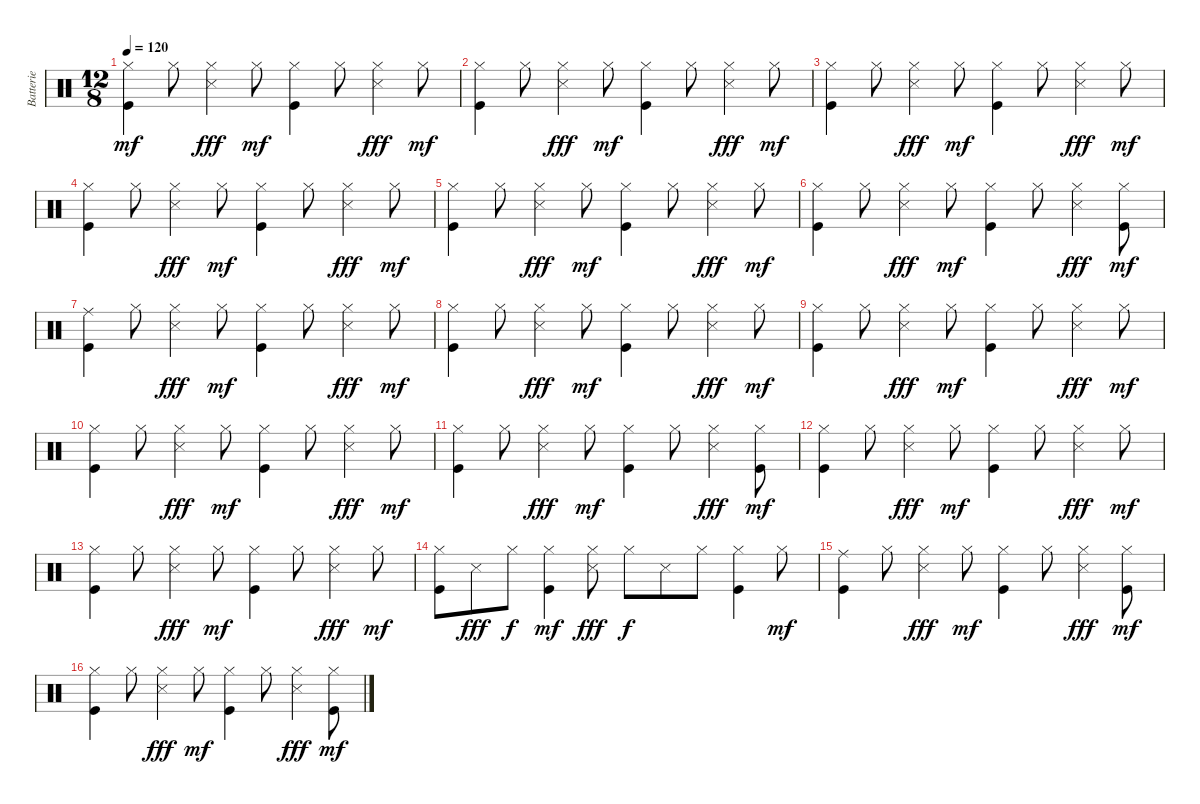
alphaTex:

\track ("Batterie" "Batterie") {instrument percussion}
\staff {score}
\articulation defaults
\ts (12 8)
\tempo 120
\clef neutral
\ks c
("Hi-Hat (closed)" "Kick (hit)").4{dy mf} "Hi-Hat (closed)".8 ("Hi-Hat (closed)" "Snare (side stick) 3").4{dy fff} "Hi-Hat (closed)".8{dy mf} ("Hi-Hat (closed)" "Kick (hit)").4 "Hi-Hat (closed)".8 ("Hi-Hat (closed)" "Snare (side stick) 3").4{dy fff} "Hi-Hat (closed)".8{dy mf} |
("Hi-Hat (closed)" "Kick (hit)").4 "Hi-Hat (closed)".8 ("Hi-Hat (closed)" "Snare (side stick) 3").4{dy fff} "Hi-Hat (closed)".8{dy mf} ("Hi-Hat (closed)" "Kick (hit)").4 "Hi-Hat (closed)".8 ("Hi-Hat (closed)" "Snare (side stick) 3").4{dy fff} "Hi-Hat (closed)".8{dy mf} |
("Hi-Hat (closed)" "Kick (hit)").4 "Hi-Hat (closed)".8 ("Hi-Hat (closed)" "Snare (side stick) 3").4{dy fff} "Hi-Hat (closed)".8{dy mf} ("Hi-Hat (closed)" "Kick (hit)").4 "Hi-Hat (closed)".8 ("Hi-Hat (closed)" "Snare (side stick) 3").4{dy fff} "Hi-Hat (closed)".8{dy mf} |
("Hi-Hat (closed)" "Kick (hit)").4 "Hi-Hat (closed)".8 ("Hi-Hat (closed)" "Snare (side stick) 3").4{dy fff} "Hi-Hat (closed)".8{dy mf} ("Hi-Hat (closed)" "Kick (hit)").4 "Hi-Hat (closed)".8 ("Hi-Hat (closed)" "Snare (side stick) 3").4{dy fff} "Hi-Hat (closed)".8{dy mf} |
("Hi-Hat (closed)" "Kick (hit)").4 "Hi-Hat (closed)".8 ("Hi-Hat (closed)" "Snare (side stick) 3").4{dy fff} "Hi-Hat (closed)".8{dy mf} ("Hi-Hat (closed)" "Kick (hit)").4 "Hi-Hat (closed)".8 ("Hi-Hat (closed)" "Snare (side stick) 3").4{dy fff} "Hi-Hat (closed)".8{dy mf} |
("Hi-Hat (closed)" "Kick (hit)").4 "Hi-Hat (closed)".8 ("Hi-Hat (closed)" "Snare (side stick) 3").4{dy fff} "Hi-Hat (closed)".8{dy mf} ("Hi-Hat (closed)" "Kick (hit)").4 "Hi-Hat (closed)".8 ("Hi-Hat (closed)" "Snare (side stick) 3").4{dy fff} ("Hi-Hat (closed)" "Kick (hit)").8{dy mf} |
("Ride (middle)" "Kick (hit)").4 "Hi-Hat (closed)".8 ("Hi-Hat (closed)" "Snare (side stick) 3").4{dy fff} "Hi-Hat (closed)".8{dy mf} ("Hi-Hat (closed)" "Kick (hit)").4 "Hi-Hat (closed)".8 ("Hi-Hat (closed)" "Snare (side stick) 3").4{dy fff} "Hi-Hat (closed)".8{dy mf} |
("Hi-Hat (closed)" "Kick (hit)").4 "Hi-Hat (closed)".8 ("Hi-Hat (closed)" "Snare (side stick) 3").4{dy fff} "Hi-Hat (closed)".8{dy mf} ("Hi-Hat (closed)" "Kick (hit)").4 "Hi-Hat (closed)".8 ("Hi-Hat (closed)" "Snare (side stick) 3").4{dy fff} "Hi-Hat (closed)".8{dy mf} |
("Hi-Hat (closed)" "Kick (hit)").4 "Hi-Hat (closed)".8 ("Hi-Hat (closed)" "Snare (side stick) 3").4{dy fff} "Hi-Hat (closed)".8{dy mf} ("Hi-Hat (closed)" "Kick (hit)").4 "Hi-Hat (closed)".8 ("Hi-Hat (closed)" "Snare (side stick) 3").4{dy fff} "Hi-Hat (closed)".8{dy mf} |
("Hi-Hat (closed)" "Kick (hit)").4 "Hi-Hat (closed)".8 ("Hi-Hat (closed)" "Snare (side stick) 3").4{dy fff} "Hi-Hat (closed)".8{dy mf} ("Hi-Hat (closed)" "Kick (hit)").4 "Hi-Hat (closed)".8 ("Hi-Hat (closed)" "Snare (side stick) 3").4{dy fff} "Hi-Hat (closed)".8{dy mf} |
("Hi-Hat (closed)" "Kick (hit)").4 "Hi-Hat (closed)".8 ("Hi-Hat (closed)" "Snare (side stick) 3").4{dy fff} "Hi-Hat (closed)".8{dy mf} ("Hi-Hat (closed)" "Kick (hit)").4 "Hi-Hat (closed)".8 ("Hi-Hat (closed)" "Snare (side stick) 3").4{dy fff} ("Hi-Hat (closed)" "Kick (hit)").8{dy mf} |
("Hi-Hat (closed)" "Kick (hit)").4 "Hi-Hat (closed)".8 ("Hi-Hat (closed)" "Snare (side stick) 3").4{dy fff} "Hi-Hat (closed)".8{dy mf} ("Hi-Hat (closed)" "Kick (hit)").4 "Hi-Hat (closed)".8 ("Hi-Hat (closed)" "Snare (side stick) 3").4{dy fff} "Hi-Hat (closed)".8{dy mf} |
("Hi-Hat (closed)" "Kick (hit)").4 "Hi-Hat (closed)".8 ("Hi-Hat (closed)" "Snare (side stick) 3").4{dy fff} "Hi-Hat (closed)".8{dy mf} ("Hi-Hat (closed)" "Kick (hit)").4 "Hi-Hat (closed)".8 ("Hi-Hat (closed)" "Snare (side stick) 3").4{dy fff} "Hi-Hat (closed)".8{dy mf} |
("Hi-Hat (closed)" "Kick (hit)").8 "Snare (side stick) 3".8{dy fff} "Hi-Hat (closed)".8{dy f} ("Hi-Hat (closed)" "Kick (hit)").4{dy mf} ("Hi-Hat (closed)" "Snare (side stick) 3").8{dy fff} "Hi-Hat (closed)".8{dy f} "Snare (side stick) 3".8 "Hi-Hat (closed)".8 ("Hi-Hat (closed)" "Kick (hit)").4 "Hi-Hat (closed)".8{dy mf} |
("Ride (middle)" "Kick (hit)").4 "Hi-Hat (closed)".8 ("Hi-Hat (closed)" "Snare (side stick) 3").4{dy fff} "Hi-Hat (closed)".8{dy mf} ("Hi-Hat (closed)" "Kick (hit)").4 "Hi-Hat (closed)".8 ("Hi-Hat (closed)" "Snare (side stick) 3").4{dy fff} ("Hi-Hat (closed)" "Kick (hit)").8{dy mf} |
("Hi-Hat (closed)" "Kick (hit)").4 "Hi-Hat (closed)".8 ("Hi-Hat (closed)" "Snare (side stick) 3").4{dy fff} "Hi-Hat (closed)".8{dy mf} ("Hi-Hat (closed)" "Kick (hit)").4 "Hi-Hat (closed)".8 ("Hi-Hat (closed)" "Snare (side stick) 3").4{dy fff} ("Hi-Hat (closed)" "Kick (hit)").8{dy mf}
